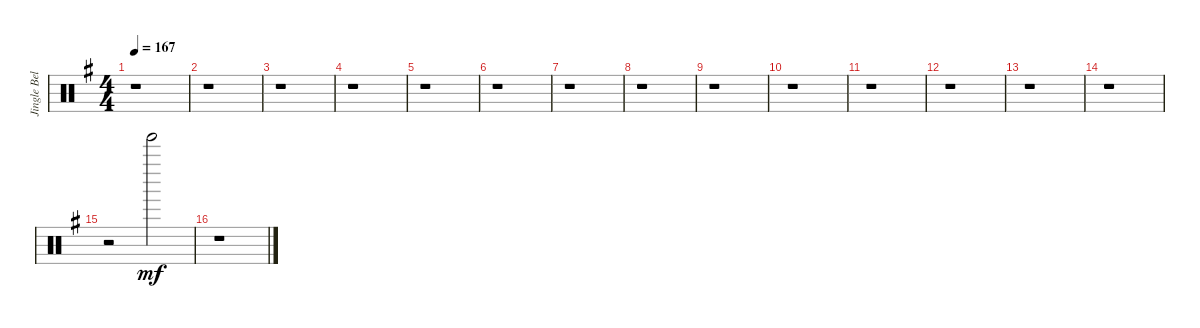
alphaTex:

\track ("Jingle Bell" "Jingle Bel") {instrument percussion}
\staff {score}
\articulation defaults
\ts (4 4)
\tempo 167
\clef neutral
\ks eminor
r.1{dy mf} |
r.1 |
r.1 |
r.1 |
r.1 |
r.1 |
r.1 |
r.1 |
r.1 |
r.1 |
r.1 |
r.1 |
r.1 |
r.1 |
r.2 "Tinkle Bell (hit)".2 |
r.1
